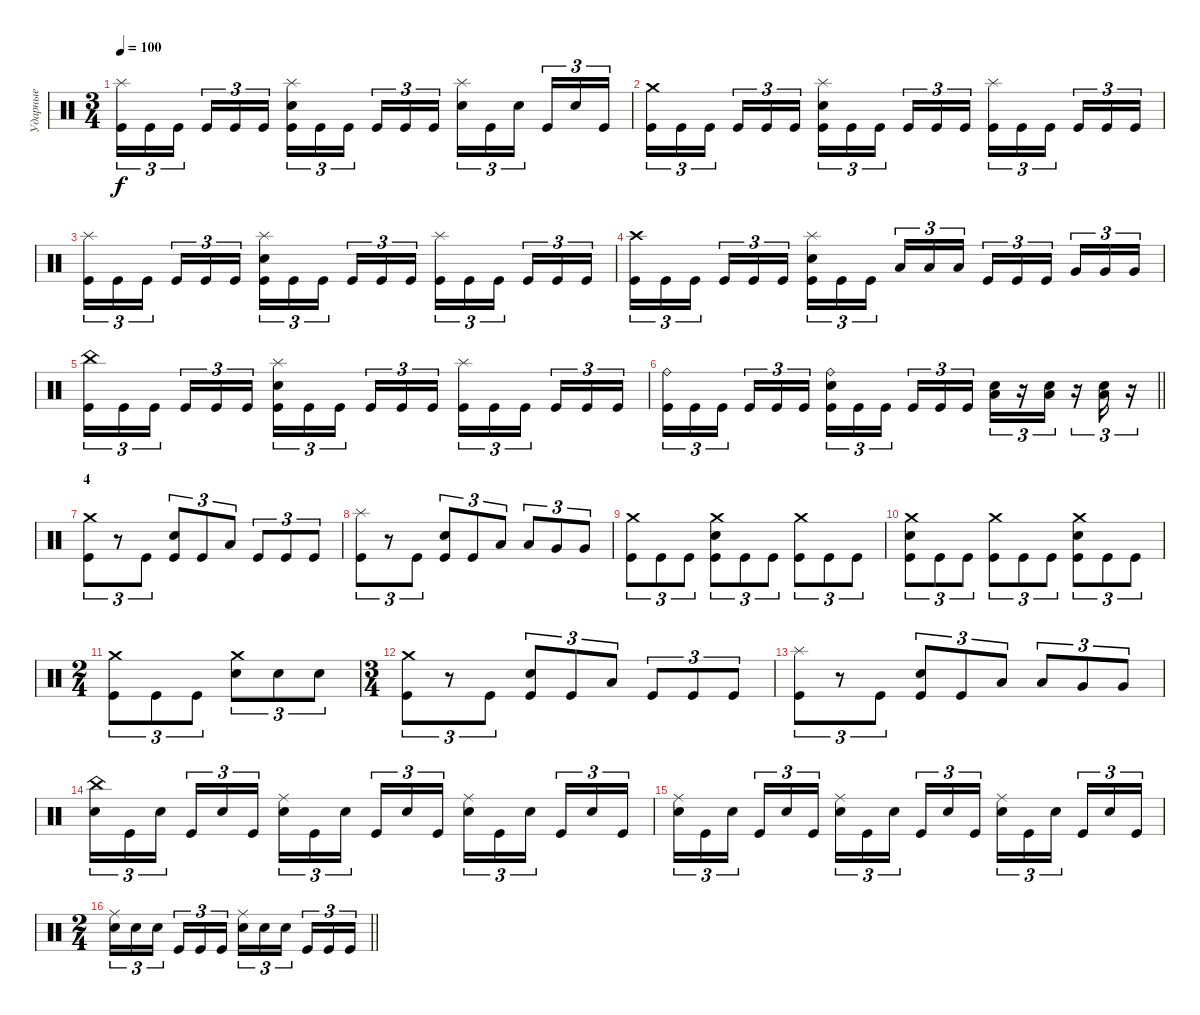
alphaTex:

\track ("Ударные" "Ударные") {instrument percussion}
\staff {score}
\articulation defaults
\ts (3 4)
\tempo 100
\clef neutral
\ks c
("Splash (hit)" "Kick (hit)").16{tu (3 2) dy f} "Kick (hit)".16{tu (3 2)} "Kick (hit)".16{tu (3 2) beam splitsecondary} "Kick (hit)".16{tu (3 2)} "Kick (hit)".16{tu (3 2)} "Kick (hit)".16{tu (3 2)} ("Splash (hit)" "Electric Snare (hit)" "Kick (hit)").16{tu (3 2)} "Kick (hit)".16{tu (3 2)} "Kick (hit)".16{tu (3 2) beam splitsecondary} "Kick (hit)".16{tu (3 2)} "Kick (hit)".16{tu (3 2)} "Kick (hit)".16{tu (3 2)} ("Splash (hit)" "Electric Snare (hit)").16{tu (3 2)} "Kick (hit)".16{tu (3 2)} "Electric Snare (hit)".16{tu (3 2) beam splitsecondary} "Kick (hit)".16{tu (3 2)} "Electric Snare (hit)".16{tu (3 2)} "Kick (hit)".16{tu (3 2)} |
("Crash medium (hit)" "Kick (hit)").16{tu (3 2)} "Kick (hit)".16{tu (3 2)} "Kick (hit)".16{tu (3 2) beam splitsecondary} "Kick (hit)".16{tu (3 2)} "Kick (hit)".16{tu (3 2)} "Kick (hit)".16{tu (3 2)} ("Splash (hit)" "Electric Snare (hit)" "Kick (hit)").16{tu (3 2)} "Kick (hit)".16{tu (3 2)} "Kick (hit)".16{tu (3 2) beam splitsecondary} "Kick (hit)".16{tu (3 2)} "Kick (hit)".16{tu (3 2)} "Kick (hit)".16{tu (3 2)} ("Splash (hit)" "Kick (hit)").16{tu (3 2)} "Kick (hit)".16{tu (3 2)} "Kick (hit)".16{tu (3 2) beam splitsecondary} "Kick (hit)".16{tu (3 2)} "Kick (hit)".16{tu (3 2)} "Kick (hit)".16{tu (3 2)} |
("Splash (hit)" "Kick (hit)").16{tu (3 2)} "Kick (hit)".16{tu (3 2)} "Kick (hit)".16{tu (3 2) beam splitsecondary} "Kick (hit)".16{tu (3 2)} "Kick (hit)".16{tu (3 2)} "Kick (hit)".16{tu (3 2)} ("Splash (hit)" "Electric Snare (hit)" "Kick (hit)").16{tu (3 2)} "Kick (hit)".16{tu (3 2)} "Kick (hit)".16{tu (3 2) beam splitsecondary} "Kick (hit)".16{tu (3 2)} "Kick (hit)".16{tu (3 2)} "Kick (hit)".16{tu (3 2)} ("Splash (hit)" "Kick (hit)").16{tu (3 2)} "Kick (hit)".16{tu (3 2)} "Kick (hit)".16{tu (3 2) beam splitsecondary} "Kick (hit)".16{tu (3 2)} "Kick (hit)".16{tu (3 2)} "Kick (hit)".16{tu (3 2)} |
("Crash high (hit)" "Kick (hit)").16{tu (3 2)} "Kick (hit)".16{tu (3 2)} "Kick (hit)".16{tu (3 2) beam splitsecondary} "Kick (hit)".16{tu (3 2)} "Kick (hit)".16{tu (3 2)} "Kick (hit)".16{tu (3 2)} ("Splash (hit)" "Electric Snare (hit)" "Kick (hit)").16{tu (3 2)} "Kick (hit)".16{tu (3 2)} "Kick (hit)".16{tu (3 2) beam splitsecondary} "Low Tom (hit)".16{tu (3 2)} "Low Tom (hit)".16{tu (3 2)} "Low Tom (hit)".16{tu (3 2)} "Kick (hit)".16{tu (3 2)} "Kick (hit)".16{tu (3 2)} "Kick (hit)".16{tu (3 2) beam splitsecondary} "Very Low Tom (hit)".16{tu (3 2)} "Very Low Tom (hit)".16{tu (3 2)} "Very Low Tom (hit)".16{tu (3 2)} |
("China (hit)" "Kick (hit)").16{tu (3 2)} "Kick (hit)".16{tu (3 2)} "Kick (hit)".16{tu (3 2) beam splitsecondary} "Kick (hit)".16{tu (3 2)} "Kick (hit)".16{tu (3 2)} "Kick (hit)".16{tu (3 2)} ("Splash (hit)" "Electric Snare (hit)" "Kick (hit)").16{tu (3 2)} "Kick (hit)".16{tu (3 2)} "Kick (hit)".16{tu (3 2) beam splitsecondary} "Kick (hit)".16{tu (3 2)} "Kick (hit)".16{tu (3 2)} "Kick (hit)".16{tu (3 2)} ("Splash (hit)" "Kick (hit)").16{tu (3 2)} "Kick (hit)".16{tu (3 2)} "Kick (hit)".16{tu (3 2) beam splitsecondary} "Kick (hit)".16{tu (3 2)} "Kick (hit)".16{tu (3 2)} "Kick (hit)".16{tu (3 2)} |
\barLineRight lightlight
("Ride (bell)" "Kick (hit)").16{tu (3 2)} "Kick (hit)".16{tu (3 2)} "Kick (hit)".16{tu (3 2) beam splitsecondary} "Kick (hit)".16{tu (3 2)} "Kick (hit)".16{tu (3 2)} "Kick (hit)".16{tu (3 2)} ("Ride (bell)" "Electric Snare (hit)" "Kick (hit)").16{tu (3 2)} "Kick (hit)".16{tu (3 2)} "Kick (hit)".16{tu (3 2) beam splitsecondary} "Kick (hit)".16{tu (3 2)} "Kick (hit)".16{tu (3 2)} "Kick (hit)".16{tu (3 2)} ("Electric Snare (hit)" "Low Floor Tom (hit)").16{tu (3 2)} r.16{tu (3 2)} ("Electric Snare (hit)" "Low Floor Tom (hit)").16{tu (3 2)} r.16{tu (3 2)} ("Electric Snare (hit)" "Low Floor Tom (hit)").16{tu (3 2)} r.16{tu (3 2)} |
\section ("" "4")
("Crash medium (hit)" "Kick (hit)").8{tu (3 2)} r.8{tu (3 2)} "Kick (hit)".8{tu (3 2)} ("Electric Snare (hit)" "Kick (hit)").8{tu (3 2)} "Kick (hit)".8{tu (3 2)} "Low Tom (hit)".8{tu (3 2)} "Kick (hit)".8{tu (3 2)} "Kick (hit)".8{tu (3 2)} "Kick (hit)".8{tu (3 2)} |
("Splash (hit)" "Kick (hit)").8{tu (3 2)} r.8{tu (3 2)} "Kick (hit)".8{tu (3 2)} ("Electric Snare (hit)" "Kick (hit)").8{tu (3 2)} "Kick (hit)".8{tu (3 2)} "Low Tom (hit)".8{tu (3 2)} "Low Tom (hit)".8{tu (3 2)} "Very Low Tom (hit)".8{tu (3 2)} "Very Low Tom (hit)".8{tu (3 2)} |
("Crash medium (hit)" "Kick (hit)").8{tu (3 2)} "Kick (hit)".8{tu (3 2)} "Kick (hit)".8{tu (3 2)} ("Crash medium (hit)" "Electric Snare (hit)" "Kick (hit)").8{tu (3 2)} "Kick (hit)".8{tu (3 2)} "Kick (hit)".8{tu (3 2)} ("Crash medium (hit)" "Kick (hit)").8{tu (3 2)} "Kick (hit)".8{tu (3 2)} "Kick (hit)".8{tu (3 2)} |
("Crash medium (hit)" "Electric Snare (hit)" "Kick (hit)").8{tu (3 2)} "Kick (hit)".8{tu (3 2)} "Kick (hit)".8{tu (3 2)} ("Crash medium (hit)" "Kick (hit)").8{tu (3 2)} "Kick (hit)".8{tu (3 2)} "Kick (hit)".8{tu (3 2)} ("Crash medium (hit)" "Electric Snare (hit)" "Kick (hit)").8{tu (3 2)} "Kick (hit)".8{tu (3 2)} "Kick (hit)".8{tu (3 2)} |
\ts (2 4)
("Crash medium (hit)" "Kick (hit)").8{tu (3 2)} "Kick (hit)".8{tu (3 2)} "Kick (hit)".8{tu (3 2)} ("Crash medium (hit)" "Electric Snare (hit)").8{tu (3 2)} "Electric Snare (hit)".8{tu (3 2)} "Electric Snare (hit)".8{tu (3 2)} |
\ts (3 4)
("Crash medium (hit)" "Kick (hit)").8{tu (3 2)} r.8{tu (3 2)} "Kick (hit)".8{tu (3 2)} ("Electric Snare (hit)" "Kick (hit)").8{tu (3 2)} "Kick (hit)".8{tu (3 2)} "Low Tom (hit)".8{tu (3 2)} "Kick (hit)".8{tu (3 2)} "Kick (hit)".8{tu (3 2)} "Kick (hit)".8{tu (3 2)} |
("Splash (hit)" "Kick (hit)").8{tu (3 2)} r.8{tu (3 2)} "Kick (hit)".8{tu (3 2)} ("Electric Snare (hit)" "Kick (hit)").8{tu (3 2)} "Kick (hit)".8{tu (3 2)} "Low Tom (hit)".8{tu (3 2)} "Low Tom (hit)".8{tu (3 2)} "Very Low Tom (hit)".8{tu (3 2)} "Very Low Tom (hit)".8{tu (3 2)} |
("China (hit)" "Electric Snare (hit)").16{tu (3 2)} "Kick (hit)".16{tu (3 2)} "Electric Snare (hit)".16{tu (3 2) beam splitsecondary} "Kick (hit)".16{tu (3 2)} "Electric Snare (hit)".16{tu (3 2)} "Kick (hit)".16{tu (3 2)} ("Ride (middle)" "Electric Snare (hit)").16{tu (3 2)} "Kick (hit)".16{tu (3 2)} "Electric Snare (hit)".16{tu (3 2) beam splitsecondary} "Kick (hit)".16{tu (3 2)} "Electric Snare (hit)".16{tu (3 2)} "Kick (hit)".16{tu (3 2)} ("Ride (middle)" "Electric Snare (hit)").16{tu (3 2)} "Kick (hit)".16{tu (3 2)} "Electric Snare (hit)".16{tu (3 2) beam splitsecondary} "Kick (hit)".16{tu (3 2)} "Electric Snare (hit)".16{tu (3 2)} "Kick (hit)".16{tu (3 2)} |
("Ride (middle)" "Electric Snare (hit)").16{tu (3 2)} "Kick (hit)".16{tu (3 2)} "Electric Snare (hit)".16{tu (3 2) beam splitsecondary} "Kick (hit)".16{tu (3 2)} "Electric Snare (hit)".16{tu (3 2)} "Kick (hit)".16{tu (3 2)} ("Ride (middle)" "Electric Snare (hit)").16{tu (3 2)} "Kick (hit)".16{tu (3 2)} "Electric Snare (hit)".16{tu (3 2) beam splitsecondary} "Kick (hit)".16{tu (3 2)} "Electric Snare (hit)".16{tu (3 2)} "Kick (hit)".16{tu (3 2)} ("Ride (middle)" "Electric Snare (hit)").16{tu (3 2)} "Kick (hit)".16{tu (3 2)} "Electric Snare (hit)".16{tu (3 2) beam splitsecondary} "Kick (hit)".16{tu (3 2)} "Electric Snare (hit)".16{tu (3 2)} "Kick (hit)".16{tu (3 2)} |
\ts (2 4)
\barLineRight lightlight
("Ride (middle)" "Electric Snare (hit)").16{tu (3 2)} "Electric Snare (hit)".16{tu (3 2)} "Electric Snare (hit)".16{tu (3 2) beam splitsecondary} "Kick (hit)".16{tu (3 2)} "Kick (hit)".16{tu (3 2)} "Kick (hit)".16{tu (3 2)} ("Ride (middle)" "Electric Snare (hit)").16{tu (3 2)} "Electric Snare (hit)".16{tu (3 2)} "Electric Snare (hit)".16{tu (3 2) beam splitsecondary} "Kick (hit)".16{tu (3 2)} "Kick (hit)".16{tu (3 2)} "Kick (hit)".16{tu (3 2)}
